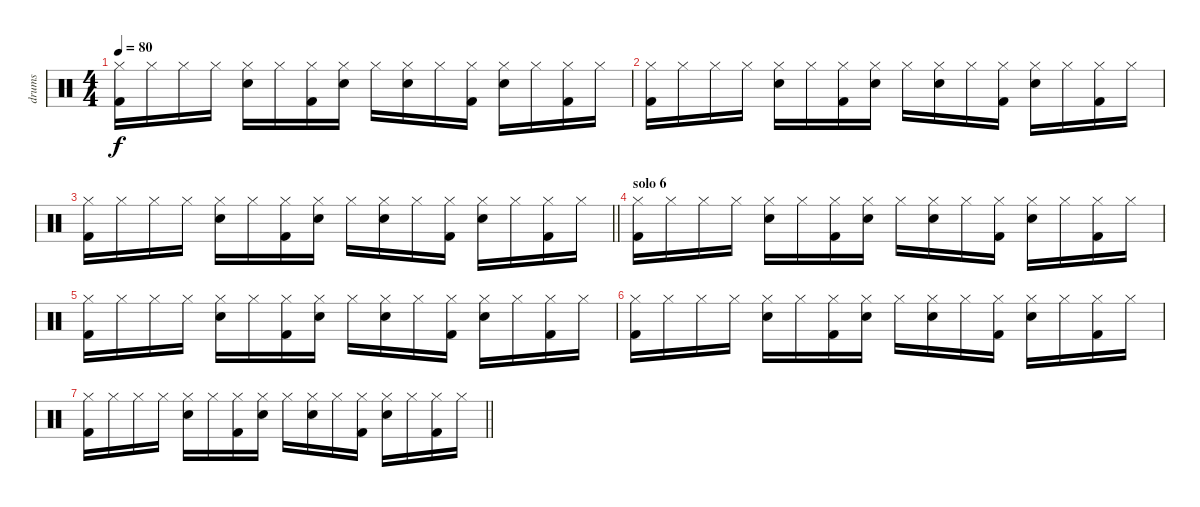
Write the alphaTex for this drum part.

\track ("drums" "drums") {instrument percussion}
\staff {score}
\articulation defaults
\ts (4 4)
\tempo 80
\clef neutral
\ks c
("Hi-Hat (closed)" "Kick (hit) 2").16{dy f} "Hi-Hat (closed)".16 "Hi-Hat (closed)".16 "Hi-Hat (closed)".16 ("Hi-Hat (closed)" "Snare (hit) 2").16 "Hi-Hat (closed)".16 ("Hi-Hat (closed)" "Kick (hit) 2").16 ("Hi-Hat (closed)" "Snare (hit) 2").16 "Hi-Hat (closed)".16 ("Hi-Hat (closed)" "Snare (hit) 2").16 "Hi-Hat (closed)".16 ("Hi-Hat (closed)" "Kick (hit) 2").16 ("Hi-Hat (closed)" "Snare (hit) 2").16 "Hi-Hat (closed)".16 ("Hi-Hat (closed)" "Kick (hit) 2").16 "Hi-Hat (closed)".16 |
("Hi-Hat (closed)" "Kick (hit) 2").16 "Hi-Hat (closed)".16 "Hi-Hat (closed)".16 "Hi-Hat (closed)".16 ("Hi-Hat (closed)" "Snare (hit) 2").16 "Hi-Hat (closed)".16 ("Hi-Hat (closed)" "Kick (hit) 2").16 ("Hi-Hat (closed)" "Snare (hit) 2").16 "Hi-Hat (closed)".16 ("Hi-Hat (closed)" "Snare (hit) 2").16 "Hi-Hat (closed)".16 ("Hi-Hat (closed)" "Kick (hit) 2").16 ("Hi-Hat (closed)" "Snare (hit) 2").16 "Hi-Hat (closed)".16 ("Hi-Hat (closed)" "Kick (hit) 2").16 "Hi-Hat (closed)".16 |
\barLineRight lightlight
("Hi-Hat (closed)" "Kick (hit) 2").16 "Hi-Hat (closed)".16 "Hi-Hat (closed)".16 "Hi-Hat (closed)".16 ("Hi-Hat (closed)" "Snare (hit) 2").16 "Hi-Hat (closed)".16 ("Hi-Hat (closed)" "Kick (hit) 2").16 ("Hi-Hat (closed)" "Snare (hit) 2").16 "Hi-Hat (closed)".16 ("Hi-Hat (closed)" "Snare (hit) 2").16 "Hi-Hat (closed)".16 ("Hi-Hat (closed)" "Kick (hit) 2").16 ("Hi-Hat (closed)" "Snare (hit) 2").16 "Hi-Hat (closed)".16 ("Hi-Hat (closed)" "Kick (hit) 2").16 "Hi-Hat (closed)".16 |
\section ("" "solo 6")
("Hi-Hat (closed)" "Kick (hit) 2").16 "Hi-Hat (closed)".16 "Hi-Hat (closed)".16 "Hi-Hat (closed)".16 ("Hi-Hat (closed)" "Snare (hit) 2").16 "Hi-Hat (closed)".16 ("Hi-Hat (closed)" "Kick (hit) 2").16 ("Hi-Hat (closed)" "Snare (hit) 2").16 "Hi-Hat (closed)".16 ("Hi-Hat (closed)" "Snare (hit) 2").16 "Hi-Hat (closed)".16 ("Hi-Hat (closed)" "Kick (hit) 2").16 ("Hi-Hat (closed)" "Snare (hit) 2").16 "Hi-Hat (closed)".16 ("Hi-Hat (closed)" "Kick (hit) 2").16 "Hi-Hat (closed)".16 |
("Hi-Hat (closed)" "Kick (hit) 2").16 "Hi-Hat (closed)".16 "Hi-Hat (closed)".16 "Hi-Hat (closed)".16 ("Hi-Hat (closed)" "Snare (hit) 2").16 "Hi-Hat (closed)".16 ("Hi-Hat (closed)" "Kick (hit) 2").16 ("Hi-Hat (closed)" "Snare (hit) 2").16 "Hi-Hat (closed)".16 ("Hi-Hat (closed)" "Snare (hit) 2").16 "Hi-Hat (closed)".16 ("Hi-Hat (closed)" "Kick (hit) 2").16 ("Hi-Hat (closed)" "Snare (hit) 2").16 "Hi-Hat (closed)".16 ("Hi-Hat (closed)" "Kick (hit) 2").16 "Hi-Hat (closed)".16 |
("Hi-Hat (closed)" "Kick (hit) 2").16 "Hi-Hat (closed)".16 "Hi-Hat (closed)".16 "Hi-Hat (closed)".16 ("Hi-Hat (closed)" "Snare (hit) 2").16 "Hi-Hat (closed)".16 ("Hi-Hat (closed)" "Kick (hit) 2").16 ("Hi-Hat (closed)" "Snare (hit) 2").16 "Hi-Hat (closed)".16 ("Hi-Hat (closed)" "Snare (hit) 2").16 "Hi-Hat (closed)".16 ("Hi-Hat (closed)" "Kick (hit) 2").16 ("Hi-Hat (closed)" "Snare (hit) 2").16 "Hi-Hat (closed)".16 ("Hi-Hat (closed)" "Kick (hit) 2").16 "Hi-Hat (closed)".16 |
\barLineRight lightlight
("Hi-Hat (closed)" "Kick (hit) 2").16 "Hi-Hat (closed)".16 "Hi-Hat (closed)".16 "Hi-Hat (closed)".16 ("Hi-Hat (closed)" "Snare (hit) 2").16 "Hi-Hat (closed)".16 ("Hi-Hat (closed)" "Kick (hit) 2").16 ("Hi-Hat (closed)" "Snare (hit) 2").16 "Hi-Hat (closed)".16 ("Hi-Hat (closed)" "Snare (hit) 2").16 "Hi-Hat (closed)".16 ("Hi-Hat (closed)" "Kick (hit) 2").16 ("Hi-Hat (closed)" "Snare (hit) 2").16 "Hi-Hat (closed)".16 ("Hi-Hat (closed)" "Kick (hit) 2").16 "Hi-Hat (closed)".16
